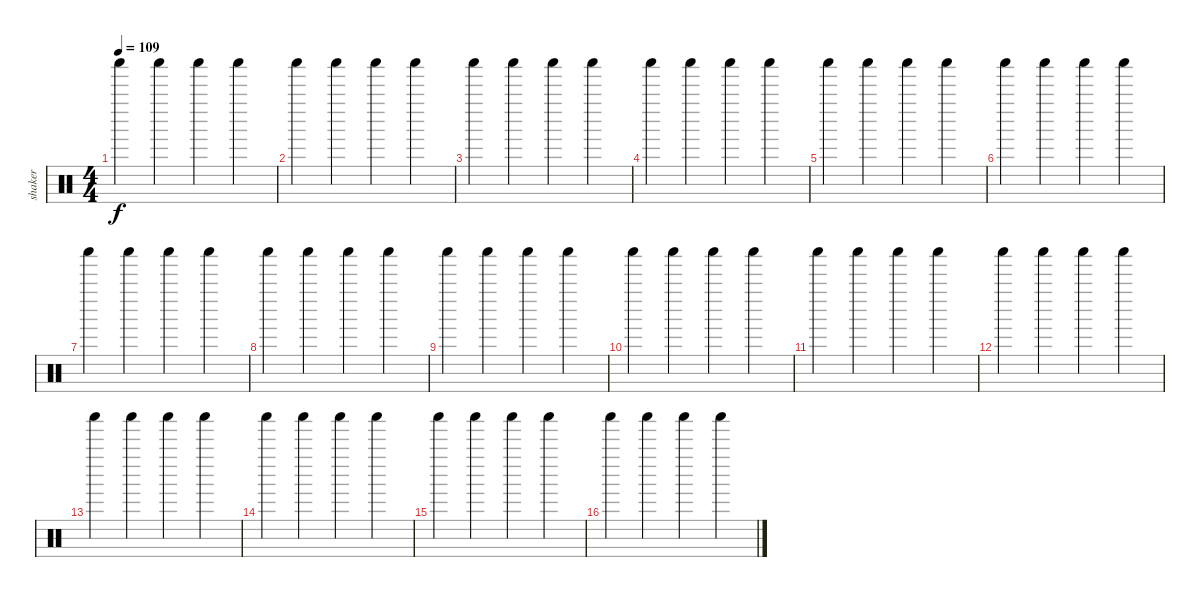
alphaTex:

\track ("shaker" "shaker") {instrument percussion}
\staff {score}
\articulation defaults
\ts (4 4)
\tempo 109
\clef neutral
\ks c "Shaker (hit)".4{dy f} "Shaker (hit)".4 "Shaker (hit)".4 "Shaker (hit)".4
|
"Shaker (hit)".4 "Shaker (hit)".4 "Shaker (hit)".4 "Shaker (hit)".4 |
"Shaker (hit)".4 "Shaker (hit)".4 "Shaker (hit)".4 "Shaker (hit)".4 |
"Shaker (hit)".4 "Shaker (hit)".4 "Shaker (hit)".4 "Shaker (hit)".4 |
"Shaker (hit)".4 "Shaker (hit)".4 "Shaker (hit)".4 "Shaker (hit)".4 |
"Shaker (hit)".4 "Shaker (hit)".4 "Shaker (hit)".4 "Shaker (hit)".4 |
"Shaker (hit)".4 "Shaker (hit)".4 "Shaker (hit)".4 "Shaker (hit)".4 |
"Shaker (hit)".4 "Shaker (hit)".4 "Shaker (hit)".4 "Shaker (hit)".4 |
"Shaker (hit)".4 "Shaker (hit)".4 "Shaker (hit)".4 "Shaker (hit)".4 |
"Shaker (hit)".4 "Shaker (hit)".4 "Shaker (hit)".4 "Shaker (hit)".4 |
"Shaker (hit)".4 "Shaker (hit)".4 "Shaker (hit)".4 "Shaker (hit)".4 |
"Shaker (hit)".4 "Shaker (hit)".4 "Shaker (hit)".4 "Shaker (hit)".4 |
"Shaker (hit)".4 "Shaker (hit)".4 "Shaker (hit)".4 "Shaker (hit)".4 |
"Shaker (hit)".4 "Shaker (hit)".4 "Shaker (hit)".4 "Shaker (hit)".4 |
"Shaker (hit)".4 "Shaker (hit)".4 "Shaker (hit)".4 "Shaker (hit)".4 |
"Shaker (hit)".4 "Shaker (hit)".4 "Shaker (hit)".4 "Shaker (hit)".4
